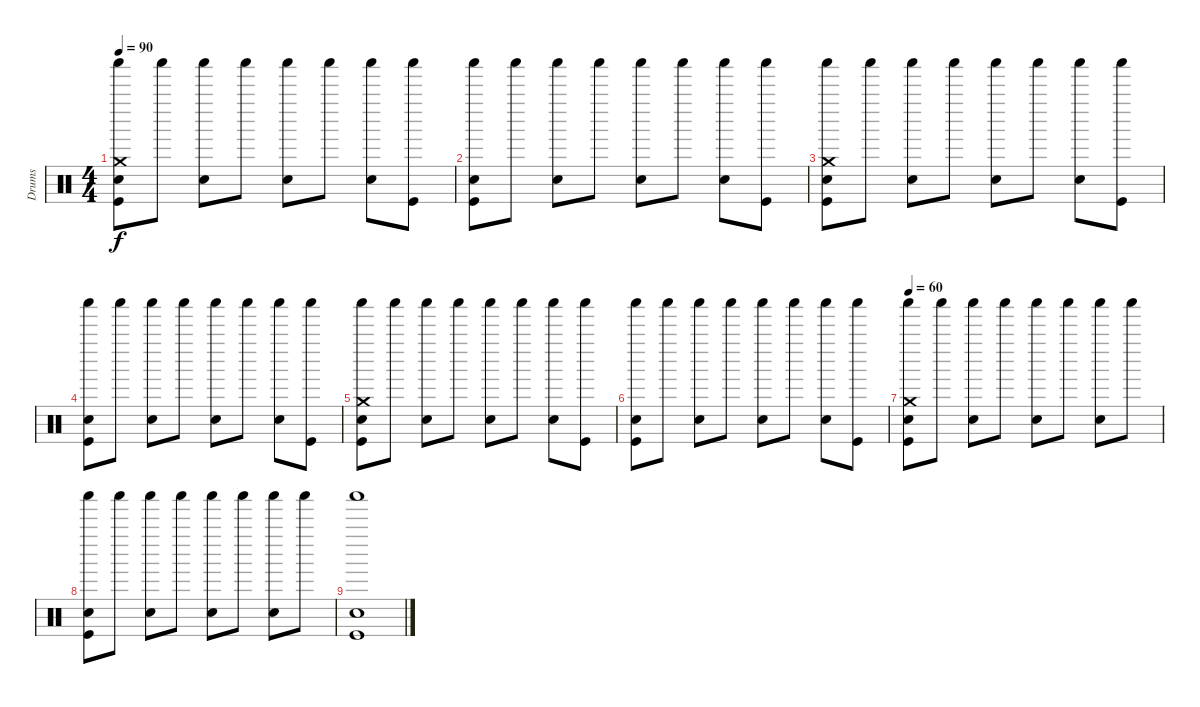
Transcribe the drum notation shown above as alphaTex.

\track ("Drums" "Drums") {instrument percussion}
\staff {score}
\articulation defaults
\ts (4 4)
\tempo 90
\clef neutral
\ks c
("Shaker (hit)" "Crash medium (hit)" "Snare (hit) 2" "Kick (hit)").8{dy f} "Shaker (hit)".8 ("Shaker (hit)" "Snare (hit) 2").8 "Shaker (hit)".8 ("Shaker (hit)" "Snare (hit) 2").8 "Shaker (hit)".8 ("Shaker (hit)" "Snare (hit) 2").8 ("Shaker (hit)" "Kick (hit)").8 |
("Shaker (hit)" "Snare (hit) 2" "Kick (hit)").8 "Shaker (hit)".8 ("Shaker (hit)" "Snare (hit) 2").8 "Shaker (hit)".8 ("Shaker (hit)" "Snare (hit) 2").8 "Shaker (hit)".8 ("Shaker (hit)" "Snare (hit) 2").8 ("Shaker (hit)" "Kick (hit)").8 |
("Shaker (hit)" "Crash medium (hit)" "Snare (hit) 2" "Kick (hit)").8 "Shaker (hit)".8 ("Shaker (hit)" "Snare (hit) 2").8 "Shaker (hit)".8 ("Shaker (hit)" "Snare (hit) 2").8 "Shaker (hit)".8 ("Shaker (hit)" "Snare (hit) 2").8 ("Shaker (hit)" "Kick (hit)").8 |
("Shaker (hit)" "Snare (hit) 2" "Kick (hit)").8 "Shaker (hit)".8 ("Shaker (hit)" "Snare (hit) 2").8 "Shaker (hit)".8 ("Shaker (hit)" "Snare (hit) 2").8 "Shaker (hit)".8 ("Shaker (hit)" "Snare (hit) 2").8 ("Shaker (hit)" "Kick (hit)").8 |
("Shaker (hit)" "Crash medium (hit)" "Snare (hit) 2" "Kick (hit)").8 "Shaker (hit)".8 ("Shaker (hit)" "Snare (hit) 2").8 "Shaker (hit)".8 ("Shaker (hit)" "Snare (hit) 2").8 "Shaker (hit)".8 ("Shaker (hit)" "Snare (hit) 2").8 ("Shaker (hit)" "Kick (hit)").8 |
("Shaker (hit)" "Snare (hit) 2" "Kick (hit)").8 "Shaker (hit)".8 ("Shaker (hit)" "Snare (hit) 2").8 "Shaker (hit)".8 ("Shaker (hit)" "Snare (hit) 2").8 "Shaker (hit)".8 ("Shaker (hit)" "Snare (hit) 2").8 ("Shaker (hit)" "Kick (hit)").8 |
\tempo 60
("Shaker (hit)" "Crash medium (hit)" "Snare (hit) 2" "Kick (hit)").8 "Shaker (hit)".8 ("Shaker (hit)" "Snare (hit) 2").8 "Shaker (hit)".8 ("Shaker (hit)" "Snare (hit) 2").8 "Shaker (hit)".8 ("Shaker (hit)" "Snare (hit) 2").8 "Shaker (hit)".8 |
("Shaker (hit)" "Snare (hit) 2" "Kick (hit)").8 "Shaker (hit)".8 ("Shaker (hit)" "Snare (hit) 2").8 "Shaker (hit)".8 ("Shaker (hit)" "Snare (hit) 2").8 "Shaker (hit)".8 ("Shaker (hit)" "Snare (hit) 2").8 "Shaker (hit)".8 |
("Shaker (hit)" "Snare (hit) 2" "Kick (hit)").1
